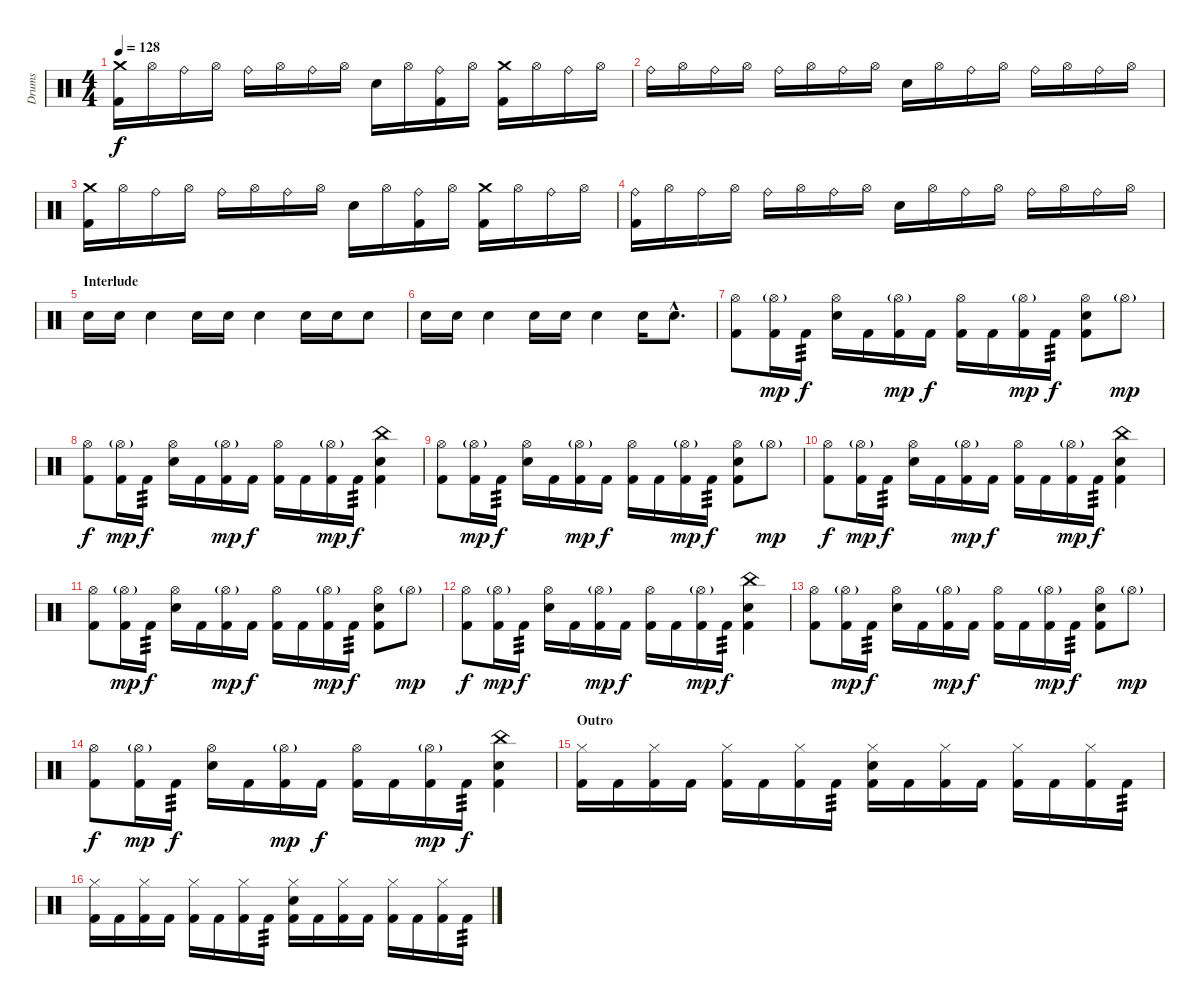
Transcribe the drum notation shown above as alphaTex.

\track ("Drums" "Drums") {instrument percussion}
\staff {score}
\articulation defaults
\ts (4 4)
\tempo 128
\clef neutral
\ks c
("Crash medium (hit)" "Kick (hit) 2").16{dy f} "Hi-Hat (open)".16 "Ride (bell)".16 "Hi-Hat (open)".16 "Ride (bell)".16 "Hi-Hat (open)".16 "Ride (bell)".16 "Hi-Hat (open)".16 "Snare (hit) 2".16 "Hi-Hat (open)".16 ("Ride (bell)" "Kick (hit) 2").16 "Hi-Hat (open)".16 ("Crash medium (hit)" "Kick (hit) 2").16 "Hi-Hat (open)".16 "Ride (bell)".16 "Hi-Hat (open)".16 |
"Ride (bell)".16 "Hi-Hat (open)".16 "Ride (bell)".16 "Hi-Hat (open)".16 "Ride (bell)".16 "Hi-Hat (open)".16 "Ride (bell)".16 "Hi-Hat (open)".16 "Snare (hit) 2".16 "Hi-Hat (open)".16 "Ride (bell)".16 "Hi-Hat (open)".16 "Ride (bell)".16 "Hi-Hat (open)".16 "Ride (bell)".16 "Hi-Hat (open)".16 |
("Crash medium (hit)" "Kick (hit) 2").16 "Hi-Hat (open)".16 "Ride (bell)".16 "Hi-Hat (open)".16 "Ride (bell)".16 "Hi-Hat (open)".16 "Ride (bell)".16 "Hi-Hat (open)".16 "Snare (hit) 2".16 "Hi-Hat (open)".16 ("Ride (bell)" "Kick (hit) 2").16 "Hi-Hat (open)".16 ("Crash medium (hit)" "Kick (hit) 2").16 "Hi-Hat (open)".16 "Ride (bell)".16 "Hi-Hat (open)".16 |
("Ride (bell)" "Kick (hit) 2").16 "Hi-Hat (open)".16 "Ride (bell)".16 "Hi-Hat (open)".16 "Ride (bell)".16 "Hi-Hat (open)".16 "Ride (bell)".16 "Hi-Hat (open)".16 "Snare (hit) 2".16 "Hi-Hat (open)".16 "Ride (bell)".16 "Hi-Hat (open)".16 "Ride (bell)".16 "Hi-Hat (open)".16 "Ride (bell)".16 "Hi-Hat (open)".16 |
\section ("" "Interlude")
"Snare (hit) 2".16 "Snare (hit) 2".16 "Snare (hit) 2".4 "Snare (hit) 2".16 "Snare (hit) 2".16 "Snare (hit) 2".4 "Snare (hit) 2".16 "Snare (hit) 2".16 "Snare (hit) 2".8 |
"Snare (hit) 2".16 "Snare (hit) 2".16 "Snare (hit) 2".4 "Snare (hit) 2".16 "Snare (hit) 2".16 "Snare (hit) 2".4 "Snare (hit) 2".16 "Snare (hit) 2"{hac}.8{d} |
("Hi-Hat (open)" "Kick (hit) 2").8 ("Hi-Hat (open)"{g} "Kick (hit) 2").16{dy mp} "Kick (hit) 2".16{tp 3 dy f} ("Hi-Hat (open)" "Snare (hit) 2").16 "Kick (hit) 2".16 ("Hi-Hat (open)"{g} "Kick (hit) 2").16{dy mp} "Kick (hit) 2".16{dy f} ("Hi-Hat (open)" "Kick (hit) 2").16 "Kick (hit) 2".16 ("Hi-Hat (open)"{g} "Kick (hit) 2").16{dy mp} "Kick (hit) 2".16{tp 3 dy f} ("Hi-Hat (open)" "Snare (hit) 2" "Kick (hit) 2").8 "Hi-Hat (open)"{g}.8{dy mp} |
("Hi-Hat (open)" "Kick (hit) 2").8{dy f} ("Hi-Hat (open)"{g} "Kick (hit) 2").16{dy mp} "Kick (hit) 2".16{tp 3 dy f} ("Hi-Hat (open)" "Snare (hit) 2").16 "Kick (hit) 2".16 ("Hi-Hat (open)"{g} "Kick (hit) 2").16{dy mp} "Kick (hit) 2".16{dy f} ("Hi-Hat (open)" "Kick (hit) 2").16 "Kick (hit) 2".16 ("Hi-Hat (open)"{g} "Kick (hit) 2").16{dy mp} "Kick (hit) 2".16{tp 3 dy f} ("China (hit)" "Snare (hit) 2" "Kick (hit) 2").4 |
("Hi-Hat (open)" "Kick (hit) 2").8 ("Hi-Hat (open)"{g} "Kick (hit) 2").16{dy mp} "Kick (hit) 2".16{tp 3 dy f} ("Hi-Hat (open)" "Snare (hit) 2").16 "Kick (hit) 2".16 ("Hi-Hat (open)"{g} "Kick (hit) 2").16{dy mp} "Kick (hit) 2".16{dy f} ("Hi-Hat (open)" "Kick (hit) 2").16 "Kick (hit) 2".16 ("Hi-Hat (open)"{g} "Kick (hit) 2").16{dy mp} "Kick (hit) 2".16{tp 3 dy f} ("Hi-Hat (open)" "Snare (hit) 2" "Kick (hit) 2").8 "Hi-Hat (open)"{g}.8{dy mp} |
("Hi-Hat (open)" "Kick (hit) 2").8{dy f} ("Hi-Hat (open)"{g} "Kick (hit) 2").16{dy mp} "Kick (hit) 2".16{tp 3 dy f} ("Hi-Hat (open)" "Snare (hit) 2").16 "Kick (hit) 2".16 ("Hi-Hat (open)"{g} "Kick (hit) 2").16{dy mp} "Kick (hit) 2".16{dy f} ("Hi-Hat (open)" "Kick (hit) 2").16 "Kick (hit) 2".16 ("Hi-Hat (open)"{g} "Kick (hit) 2").16{dy mp} "Kick (hit) 2".16{tp 3 dy f} ("China (hit)" "Snare (hit) 2" "Kick (hit) 2").4 |
("Hi-Hat (open)" "Kick (hit) 2").8 ("Hi-Hat (open)"{g} "Kick (hit) 2").16{dy mp} "Kick (hit) 2".16{tp 3 dy f} ("Hi-Hat (open)" "Snare (hit) 2").16 "Kick (hit) 2".16 ("Hi-Hat (open)"{g} "Kick (hit) 2").16{dy mp} "Kick (hit) 2".16{dy f} ("Hi-Hat (open)" "Kick (hit) 2").16 "Kick (hit) 2".16 ("Hi-Hat (open)"{g} "Kick (hit) 2").16{dy mp} "Kick (hit) 2".16{tp 3 dy f} ("Hi-Hat (open)" "Snare (hit) 2" "Kick (hit) 2").8 "Hi-Hat (open)"{g}.8{dy mp} |
("Hi-Hat (open)" "Kick (hit) 2").8{dy f} ("Hi-Hat (open)"{g} "Kick (hit) 2").16{dy mp} "Kick (hit) 2".16{tp 3 dy f} ("Hi-Hat (open)" "Snare (hit) 2").16 "Kick (hit) 2".16 ("Hi-Hat (open)"{g} "Kick (hit) 2").16{dy mp} "Kick (hit) 2".16{dy f} ("Hi-Hat (open)" "Kick (hit) 2").16 "Kick (hit) 2".16 ("Hi-Hat (open)"{g} "Kick (hit) 2").16{dy mp} "Kick (hit) 2".16{tp 3 dy f} ("China (hit)" "Snare (hit) 2" "Kick (hit) 2").4 |
("Hi-Hat (open)" "Kick (hit) 2").8 ("Hi-Hat (open)"{g} "Kick (hit) 2").16{dy mp} "Kick (hit) 2".16{tp 3 dy f} ("Hi-Hat (open)" "Snare (hit) 2").16 "Kick (hit) 2".16 ("Hi-Hat (open)"{g} "Kick (hit) 2").16{dy mp} "Kick (hit) 2".16{dy f} ("Hi-Hat (open)" "Kick (hit) 2").16 "Kick (hit) 2".16 ("Hi-Hat (open)"{g} "Kick (hit) 2").16{dy mp} "Kick (hit) 2".16{tp 3 dy f} ("Hi-Hat (open)" "Snare (hit) 2" "Kick (hit) 2").8 "Hi-Hat (open)"{g}.8{dy mp} |
("Hi-Hat (open)" "Kick (hit) 2").8{dy f} ("Hi-Hat (open)"{g} "Kick (hit) 2").16{dy mp} "Kick (hit) 2".16{tp 3 dy f} ("Hi-Hat (open)" "Snare (hit) 2").16 "Kick (hit) 2".16 ("Hi-Hat (open)"{g} "Kick (hit) 2").16{dy mp} "Kick (hit) 2".16{dy f} ("Hi-Hat (open)" "Kick (hit) 2").16 "Kick (hit) 2".16 ("Hi-Hat (open)"{g} "Kick (hit) 2").16{dy mp} "Kick (hit) 2".16{tp 3 dy f} ("China (hit)" "Snare (hit) 2" "Kick (hit) 2").4 |
\section ("" "Outro")
("Hi-Hat (closed)" "Kick (hit) 2").16 "Kick (hit) 2".16 ("Hi-Hat (closed)" "Kick (hit) 2").16 "Kick (hit) 2".16 ("Hi-Hat (closed)" "Kick (hit) 2").16 "Kick (hit) 2".16 ("Hi-Hat (closed)" "Kick (hit) 2").16 "Kick (hit) 2".16{tp 3} ("Hi-Hat (closed)" "Snare (hit) 2" "Kick (hit) 2").16 "Kick (hit) 2".16 ("Hi-Hat (closed)" "Kick (hit) 2").16 "Kick (hit) 2".16 ("Hi-Hat (closed)" "Kick (hit) 2").16 "Kick (hit) 2".16 ("Hi-Hat (closed)" "Kick (hit) 2").16 "Kick (hit) 2".16{tp 3} |
("Hi-Hat (closed)" "Kick (hit) 2").16 "Kick (hit) 2".16 ("Hi-Hat (closed)" "Kick (hit) 2").16 "Kick (hit) 2".16 ("Hi-Hat (closed)" "Kick (hit) 2").16 "Kick (hit) 2".16 ("Hi-Hat (closed)" "Kick (hit) 2").16 "Kick (hit) 2".16{tp 3} ("Hi-Hat (closed)" "Snare (hit) 2" "Kick (hit) 2").16 "Kick (hit) 2".16 ("Hi-Hat (closed)" "Kick (hit) 2").16 "Kick (hit) 2".16 ("Hi-Hat (closed)" "Kick (hit) 2").16 "Kick (hit) 2".16 ("Hi-Hat (closed)" "Kick (hit) 2").16 "Kick (hit) 2".16{tp 3}
